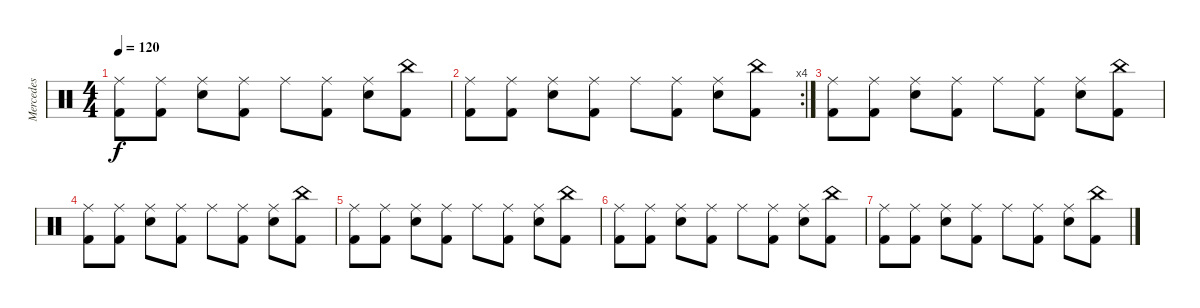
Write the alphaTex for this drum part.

\track ("Mercedes" "Mercedes") {instrument percussion}
\staff {score}
\articulation defaults
\ts (4 4)
\tempo 120
\clef neutral
\ks c
("Ride (middle)" "Kick (hit) 2").8{dy f} ("Ride (middle)" "Kick (hit) 2").8 ("Ride (middle)" "Snare (hit) 2").8 ("Ride (middle)" "Kick (hit) 2").8 "Ride (middle)".8 ("Ride (middle)" "Kick (hit) 2").8 ("Ride (middle)" "Snare (hit) 2").8 ("China (hit)" "Kick (hit) 2").8 |
\rc 4
("Ride (middle)" "Kick (hit) 2").8 ("Ride (middle)" "Kick (hit) 2").8 ("Ride (middle)" "Snare (hit) 2").8 ("Ride (middle)" "Kick (hit) 2").8 "Ride (middle)".8 ("Ride (middle)" "Kick (hit) 2").8 ("Ride (middle)" "Snare (hit) 2").8 ("China (hit)" "Kick (hit) 2").8 |
("Ride (middle)" "Kick (hit) 2").8 ("Ride (middle)" "Kick (hit) 2").8 ("Ride (middle)" "Snare (hit) 2").8 ("Ride (middle)" "Kick (hit) 2").8 "Ride (middle)".8 ("Ride (middle)" "Kick (hit) 2").8 ("Ride (middle)" "Snare (hit) 2").8 ("China (hit)" "Kick (hit) 2").8 |
("Ride (middle)" "Kick (hit) 2").8 ("Ride (middle)" "Kick (hit) 2").8 ("Ride (middle)" "Snare (hit) 2").8 ("Ride (middle)" "Kick (hit) 2").8 "Ride (middle)".8 ("Ride (middle)" "Kick (hit) 2").8 ("Ride (middle)" "Snare (hit) 2").8 ("China (hit)" "Kick (hit) 2").8 |
("Ride (middle)" "Kick (hit) 2").8 ("Ride (middle)" "Kick (hit) 2").8 ("Ride (middle)" "Snare (hit) 2").8 ("Ride (middle)" "Kick (hit) 2").8 "Ride (middle)".8 ("Ride (middle)" "Kick (hit) 2").8 ("Ride (middle)" "Snare (hit) 2").8 ("China (hit)" "Kick (hit) 2").8 |
("Ride (middle)" "Kick (hit) 2").8 ("Ride (middle)" "Kick (hit) 2").8 ("Ride (middle)" "Snare (hit) 2").8 ("Ride (middle)" "Kick (hit) 2").8 "Ride (middle)".8 ("Ride (middle)" "Kick (hit) 2").8 ("Ride (middle)" "Snare (hit) 2").8 ("China (hit)" "Kick (hit) 2").8 |
("Ride (middle)" "Kick (hit) 2").8 ("Ride (middle)" "Kick (hit) 2").8 ("Ride (middle)" "Snare (hit) 2").8 ("Ride (middle)" "Kick (hit) 2").8 "Ride (middle)".8 ("Ride (middle)" "Kick (hit) 2").8 ("Ride (middle)" "Snare (hit) 2").8 ("China (hit)" "Kick (hit) 2").8
